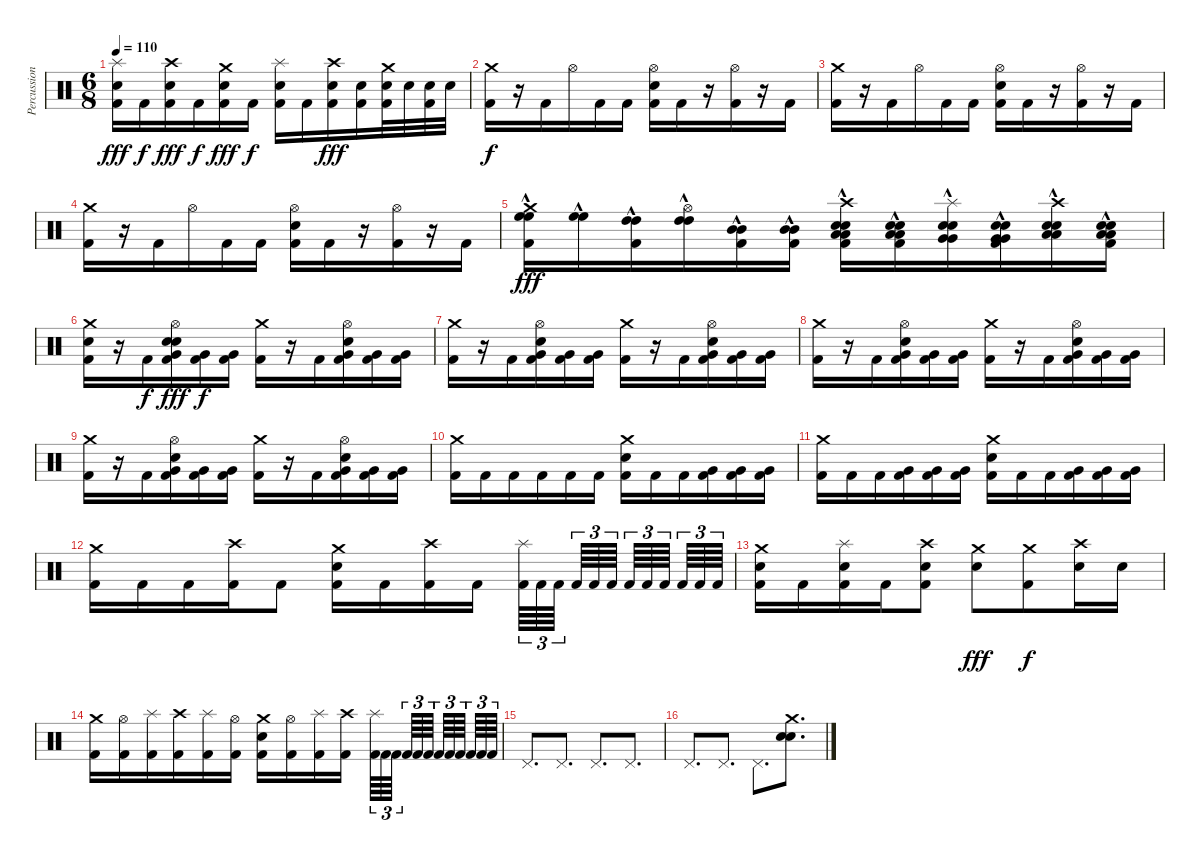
\track ("Percussion" "Percussion") {instrument percussion}
\staff {score}
\articulation defaults
\ts (6 8)
\tempo 110
\clef neutral
\ks c
("Splash (hit)" "Snare (hit) 2" "Kick (hit) 2").16{dy fff} "Kick (hit) 2".16{dy f} ("Crash high (hit)" "Snare (hit) 2" "Kick (hit) 2").16{dy fff} "Kick (hit) 2".16{dy f} ("Crash medium (hit)" "Snare (hit) 2" "Kick (hit) 2").16{dy fff} "Kick (hit) 2".16{dy f} ("Splash (hit)" "Snare (hit) 2" "Kick (hit) 2").16 "Kick (hit) 2".16 ("Crash high (hit)" "Snare (hit) 2" "Kick (hit) 2").16{dy fff} ("Snare (hit) 2" "Kick (hit) 2").16 ("Crash medium (hit)" "Snare (hit) 2" "Kick (hit) 2").32 "Snare (hit) 2".32 ("Snare (hit) 2" "Kick (hit) 2").32 "Snare (hit) 2".32 |
("Crash medium (hit)" "Kick (hit) 2").16{dy f} r.16 "Kick (hit) 2".16 "Hi-Hat (open)".16 "Kick (hit) 2".16 "Kick (hit) 2".16 ("Hi-Hat (open)" "Snare (hit) 2" "Kick (hit) 2").16 "Kick (hit) 2".16 r.16 ("Hi-Hat (open)" "Kick (hit) 2").16 r.16 "Kick (hit) 2".16 |
("Crash medium (hit)" "Kick (hit) 2").16 r.16 "Kick (hit) 2".16 "Hi-Hat (open)".16 "Kick (hit) 2".16 "Kick (hit) 2".16 ("Hi-Hat (open)" "Snare (hit) 2" "Kick (hit) 2").16 "Kick (hit) 2".16 r.16 ("Hi-Hat (open)" "Kick (hit) 2").16 r.16 "Kick (hit) 2".16 |
("Crash medium (hit)" "Kick (hit) 2").16 r.16 "Kick (hit) 2".16 "Hi-Hat (open)".16 "Kick (hit) 2".16 "Kick (hit) 2".16 ("Hi-Hat (open)" "Snare (hit) 2" "Kick (hit) 2").16 "Kick (hit) 2".16 r.16 ("Hi-Hat (open)" "Kick (hit) 2").16 r.16 "Kick (hit) 2".16 |
("Crash medium (hit)" "High Floor Tom (hit)"{hac} "High Floor Tom (hit)" "Kick (hit) 2").16{dy fff} ("High Floor Tom (hit)"{hac} "High Floor Tom (hit)").16 ("High Tom (hit)"{hac} "High Tom (hit)" "Kick (hit) 2").16 ("Hi-Hat (open)" "High Tom (hit)"{hac} "High Tom (hit)").16 ("Mid Tom (hit)"{hac} "Mid Tom (hit)" "Kick (hit) 2").16 ("Mid Tom (hit)"{hac} "Mid Tom (hit)" "Kick (hit) 2").16 ("Snare (hit) 2" "Crash high (hit)" "Low Tom (hit)"{hac} "Snare (hit) 2" "Low Tom (hit)" "Kick (hit) 2").16 ("Snare (hit) 2" "Low Tom (hit)"{hac} "Low Tom (hit)" "Snare (hit) 2" "Kick (hit) 2").16 ("Splash (hit)" "Very Low Tom (hit)"{hac} "Very Low Tom (hit)" "Snare (hit) 2" "Snare (hit) 2").16 ("Snare (hit) 2" "Very Low Tom (hit)"{hac} "Very Low Tom (hit)" "Snare (hit) 2" "Kick (hit) 2").16 ("Crash high (hit)" "Low Floor Tom (hit)"{hac} "Low Floor Tom (hit)" "Snare (hit) 2" "Snare (hit) 2").16 ("Snare (hit) 2" "Low Floor Tom (hit)"{hac} "Low Floor Tom (hit)" "Snare (hit) 2" "Kick (hit) 2").16 |
("Crash medium (hit)" "Snare (hit) 2" "Kick (hit) 2").16 r.16 "Kick (hit) 2".16{dy f} ("Hi-Hat (open)" "Snare (hit) 2" "Very Low Tom (hit)" "Snare (hit) 2" "Kick (hit) 2").16{dy fff} ("Very Low Tom (hit)" "Kick (hit) 2").16{dy f} ("Very Low Tom (hit)" "Kick (hit) 2").16 ("Crash medium (hit)" "Kick (hit) 2").16 r.16 "Kick (hit) 2".16 ("Hi-Hat (open)" "Snare (hit) 2" "Very Low Tom (hit)" "Kick (hit) 2").16 ("Very Low Tom (hit)" "Kick (hit) 2").16 ("Very Low Tom (hit)" "Kick (hit) 2").16 |
("Crash medium (hit)" "Kick (hit) 2").16 r.16 "Kick (hit) 2".16 ("Hi-Hat (open)" "Snare (hit) 2" "Very Low Tom (hit)" "Kick (hit) 2").16 ("Very Low Tom (hit)" "Kick (hit) 2").16 ("Very Low Tom (hit)" "Kick (hit) 2").16 ("Crash medium (hit)" "Kick (hit) 2").16 r.16 "Kick (hit) 2".16 ("Hi-Hat (open)" "Snare (hit) 2" "Very Low Tom (hit)" "Kick (hit) 2").16 ("Very Low Tom (hit)" "Kick (hit) 2").16 ("Very Low Tom (hit)" "Kick (hit) 2").16 |
("Crash medium (hit)" "Kick (hit) 2").16 r.16 "Kick (hit) 2".16 ("Hi-Hat (open)" "Snare (hit) 2" "Very Low Tom (hit)" "Kick (hit) 2").16 ("Very Low Tom (hit)" "Kick (hit) 2").16 ("Very Low Tom (hit)" "Kick (hit) 2").16 ("Crash medium (hit)" "Kick (hit) 2").16 r.16 "Kick (hit) 2".16 ("Hi-Hat (open)" "Snare (hit) 2" "Very Low Tom (hit)" "Kick (hit) 2").16 ("Very Low Tom (hit)" "Kick (hit) 2").16 ("Very Low Tom (hit)" "Kick (hit) 2").16 |
("Crash medium (hit)" "Kick (hit) 2").16 r.16 "Kick (hit) 2".16 ("Hi-Hat (open)" "Snare (hit) 2" "Very Low Tom (hit)" "Kick (hit) 2").16 ("Very Low Tom (hit)" "Kick (hit) 2").16 ("Very Low Tom (hit)" "Kick (hit) 2").16 ("Crash medium (hit)" "Kick (hit) 2").16 r.16 "Kick (hit) 2".16 ("Hi-Hat (open)" "Snare (hit) 2" "Very Low Tom (hit)" "Kick (hit) 2").16 ("Very Low Tom (hit)" "Kick (hit) 2").16 ("Very Low Tom (hit)" "Kick (hit) 2").16 |
("Crash medium (hit)" "Kick (hit) 2").16 "Kick (hit) 2".16 "Kick (hit) 2".16 "Kick (hit) 2".16 "Kick (hit) 2".16 "Kick (hit) 2".16 ("Crash medium (hit)" "Snare (hit) 2" "Kick (hit) 2").16 "Kick (hit) 2".16 "Kick (hit) 2".16 ("Very Low Tom (hit)" "Kick (hit) 2").16 ("Very Low Tom (hit)" "Kick (hit) 2").16 ("Very Low Tom (hit)" "Kick (hit) 2").16 |
("Crash medium (hit)" "Kick (hit) 2").16 "Kick (hit) 2".16 "Kick (hit) 2".16 ("Very Low Tom (hit)" "Kick (hit) 2").16 ("Very Low Tom (hit)" "Kick (hit) 2").16 ("Very Low Tom (hit)" "Kick (hit) 2").16 ("Crash medium (hit)" "Snare (hit) 2" "Kick (hit) 2").16 "Kick (hit) 2".16 "Kick (hit) 2".16 ("Very Low Tom (hit)" "Kick (hit) 2").16 ("Very Low Tom (hit)" "Kick (hit) 2").16 ("Very Low Tom (hit)" "Kick (hit) 2").16 |
("Crash medium (hit)" "Kick (hit) 2").16 "Kick (hit) 2".16 "Kick (hit) 2".16 ("Crash high (hit)" "Kick (hit) 2").16 "Kick (hit) 2".8 ("Crash medium (hit)" "Snare (hit) 2" "Kick (hit) 2").16 "Kick (hit) 2".16 ("Crash high (hit)" "Kick (hit) 2").16 "Kick (hit) 2".16{beam splitsecondary} ("Splash (hit)" "Kick (hit) 2").64{tu (3 2)} "Kick (hit) 2".64{tu (3 2)} "Kick (hit) 2".64{tu (3 2) beam splitsecondary} "Kick (hit) 2".64{tu (3 2)} "Kick (hit) 2".64{tu (3 2)} "Kick (hit) 2".64{tu (3 2) beam splitsecondary} "Kick (hit) 2".64{tu (3 2)} "Kick (hit) 2".64{tu (3 2)} "Kick (hit) 2".64{tu (3 2) beam splitsecondary} "Kick (hit) 2".64{tu (3 2)} "Kick (hit) 2".64{tu (3 2)} "Kick (hit) 2".64{tu (3 2)} |
("Crash medium (hit)" "Snare (hit) 2" "Kick (hit) 2").16 "Kick (hit) 2".16 ("Splash (hit)" "Snare (hit) 2" "Kick (hit) 2").16 "Kick (hit) 2".16 ("Crash high (hit)" "Snare (hit) 2" "Kick (hit) 2").8 ("Crash medium (hit)" "Snare (hit) 2").8{dy fff} ("Crash medium (hit)" "Kick (hit) 2").8{dy f} ("Crash high (hit)" "Snare (hit) 2").16 "Snare (hit) 2".16 |
("Crash medium (hit)" "Kick (hit) 2").16 ("Hi-Hat (open)" "Kick (hit) 2").16 ("Splash (hit)" "Kick (hit) 2").16 ("Crash high (hit)" "Kick (hit) 2").16 ("Splash (hit)" "Kick (hit) 2").16 ("Kick (hit) 2" "Hi-Hat (open)").16 ("Crash medium (hit)" "Snare (hit) 2" "Kick (hit) 2").16 ("Hi-Hat (open)" "Kick (hit) 2").16 ("Splash (hit)" "Kick (hit) 2").16 ("Crash high (hit)" "Kick (hit) 2").16{beam splitsecondary} ("Splash (hit)" "Kick (hit) 2").64{tu (3 2)} "Kick (hit) 2".64{tu (3 2)} "Kick (hit) 2".64{tu (3 2) beam splitsecondary} "Kick (hit) 2".64{tu (3 2)} "Kick (hit) 2".64{tu (3 2)} "Kick (hit) 2".64{tu (3 2) beam splitsecondary} "Kick (hit) 2".64{tu (3 2)} "Kick (hit) 2".64{tu (3 2)} "Kick (hit) 2".64{tu (3 2) beam splitsecondary} "Kick (hit) 2".64{tu (3 2)} "Kick (hit) 2".64{tu (3 2)} "Kick (hit) 2".64{tu (3 2)} |
"Pedal Hi-Hat (hit)".8{d} "Pedal Hi-Hat (hit)".8{d} "Pedal Hi-Hat (hit)".8{d} "Pedal Hi-Hat (hit)".8{d} |
"Pedal Hi-Hat (hit)".8{d} "Pedal Hi-Hat (hit)".8{d} "Pedal Hi-Hat (hit)".8{d} ("Crash medium (hit)" "Snare (hit) 2" "Snare (hit)").8{d}
